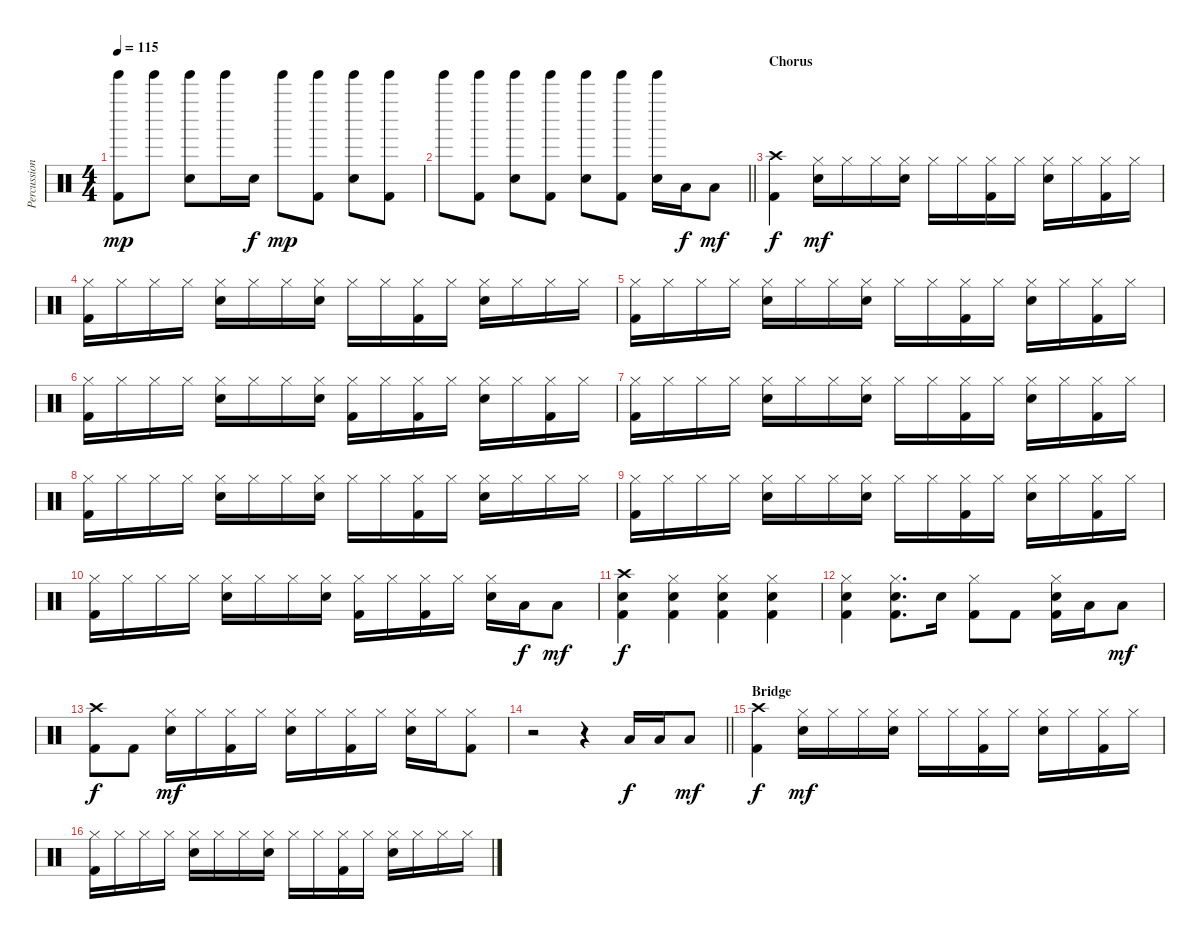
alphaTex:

\track ("Percussion" "Percussion") {instrument percussion}
\staff {score}
\articulation defaults
\ts (4 4)
\tempo 115
\clef neutral
\ks c
("Tinkle Bell (hit)" "Kick (hit) 2").8{dy mp} "Tinkle Bell (hit)".8 ("Tinkle Bell (hit)" "Electric Snare (hit)").8 "Tinkle Bell (hit)".16 "Electric Snare (hit)".16{dy f} "Tinkle Bell (hit)".8{dy mp} ("Tinkle Bell (hit)" "Kick (hit) 2").8 ("Tinkle Bell (hit)" "Electric Snare (hit)").8 ("Tinkle Bell (hit)" "Kick (hit) 2").8 |
\barLineRight lightlight "Tinkle Bell (hit)".8
("Tinkle Bell (hit)" "Kick (hit) 2").8 ("Tinkle Bell (hit)" "Electric Snare (hit)").8 ("Tinkle Bell (hit)" "Kick (hit) 2").8 ("Tinkle Bell (hit)" "Electric Snare (hit)").8 ("Tinkle Bell (hit)" "Kick (hit) 2").8 ("Tinkle Bell (hit)" "Electric Snare (hit)").16 "Low Tom (hit)".16{dy f} "Low Tom (hit)".8{dy mf} |
\section ("" "Chorus")
("Crash high (hit)" "Kick (hit) 2").4{dy f} ("Hi-Hat (closed)" "Electric Snare (hit)").16{dy mf} "Hi-Hat (closed)".16 "Hi-Hat (closed)".16 ("Hi-Hat (closed)" "Electric Snare (hit)").16 "Hi-Hat (closed)".16 "Hi-Hat (closed)".16 ("Hi-Hat (closed)" "Kick (hit) 2").16 "Hi-Hat (closed)".16 ("Hi-Hat (closed)" "Electric Snare (hit)").16 "Hi-Hat (closed)".16 ("Hi-Hat (closed)" "Kick (hit) 2").16 "Hi-Hat (closed)".16 |
("Hi-Hat (closed)" "Kick (hit) 2").16 "Hi-Hat (closed)".16 "Hi-Hat (closed)".16 "Hi-Hat (closed)".16 ("Hi-Hat (closed)" "Electric Snare (hit)").16 "Hi-Hat (closed)".16 "Hi-Hat (closed)".16 ("Hi-Hat (closed)" "Electric Snare (hit)").16 "Hi-Hat (closed)".16 "Hi-Hat (closed)".16 ("Hi-Hat (closed)" "Kick (hit) 2").16 "Hi-Hat (closed)".16 ("Hi-Hat (closed)" "Electric Snare (hit)").16 "Hi-Hat (closed)".16 "Hi-Hat (closed)".16 "Hi-Hat (closed)".16 |
("Hi-Hat (closed)" "Kick (hit) 2").16 "Hi-Hat (closed)".16 "Hi-Hat (closed)".16 "Hi-Hat (closed)".16 ("Hi-Hat (closed)" "Electric Snare (hit)").16 "Hi-Hat (closed)".16 "Hi-Hat (closed)".16 ("Hi-Hat (closed)" "Electric Snare (hit)").16 "Hi-Hat (closed)".16 "Hi-Hat (closed)".16 ("Hi-Hat (closed)" "Kick (hit) 2").16 "Hi-Hat (closed)".16 ("Hi-Hat (closed)" "Electric Snare (hit)").16 "Hi-Hat (closed)".16 ("Hi-Hat (closed)" "Kick (hit) 2").16 "Hi-Hat (closed)".16 |
("Hi-Hat (closed)" "Kick (hit) 2").16 "Hi-Hat (closed)".16 "Hi-Hat (closed)".16 "Hi-Hat (closed)".16 ("Hi-Hat (closed)" "Electric Snare (hit)").16 "Hi-Hat (closed)".16 "Hi-Hat (closed)".16 ("Hi-Hat (closed)" "Electric Snare (hit)").16 ("Hi-Hat (closed)" "Kick (hit) 2").16 "Hi-Hat (closed)".16 ("Hi-Hat (closed)" "Kick (hit) 2").16 "Hi-Hat (closed)".16 ("Hi-Hat (closed)" "Electric Snare (hit)").16 "Hi-Hat (closed)".16 ("Hi-Hat (closed)" "Kick (hit) 2").16 "Hi-Hat (closed)".16 |
("Hi-Hat (closed)" "Kick (hit) 2").16 "Hi-Hat (closed)".16 "Hi-Hat (closed)".16 "Hi-Hat (closed)".16 ("Hi-Hat (closed)" "Electric Snare (hit)").16 "Hi-Hat (closed)".16 "Hi-Hat (closed)".16 ("Hi-Hat (closed)" "Electric Snare (hit)").16 "Hi-Hat (closed)".16 "Hi-Hat (closed)".16 ("Hi-Hat (closed)" "Kick (hit) 2").16 "Hi-Hat (closed)".16 ("Hi-Hat (closed)" "Electric Snare (hit)").16 "Hi-Hat (closed)".16 ("Hi-Hat (closed)" "Kick (hit) 2").16 "Hi-Hat (closed)".16 |
("Hi-Hat (closed)" "Kick (hit) 2").16 "Hi-Hat (closed)".16 "Hi-Hat (closed)".16 "Hi-Hat (closed)".16 ("Hi-Hat (closed)" "Electric Snare (hit)").16 "Hi-Hat (closed)".16 "Hi-Hat (closed)".16 ("Hi-Hat (closed)" "Electric Snare (hit)").16 "Hi-Hat (closed)".16 "Hi-Hat (closed)".16 ("Hi-Hat (closed)" "Kick (hit) 2").16 "Hi-Hat (closed)".16 ("Hi-Hat (closed)" "Electric Snare (hit)").16 "Hi-Hat (closed)".16 "Hi-Hat (closed)".16 "Hi-Hat (closed)".16 |
("Hi-Hat (closed)" "Kick (hit) 2").16 "Hi-Hat (closed)".16 "Hi-Hat (closed)".16 "Hi-Hat (closed)".16 ("Hi-Hat (closed)" "Electric Snare (hit)").16 "Hi-Hat (closed)".16 "Hi-Hat (closed)".16 ("Hi-Hat (closed)" "Electric Snare (hit)").16 "Hi-Hat (closed)".16 "Hi-Hat (closed)".16 ("Hi-Hat (closed)" "Kick (hit) 2").16 "Hi-Hat (closed)".16 ("Hi-Hat (closed)" "Electric Snare (hit)").16 "Hi-Hat (closed)".16 ("Hi-Hat (closed)" "Kick (hit) 2").16 "Hi-Hat (closed)".16 |
("Hi-Hat (closed)" "Kick (hit) 2").16 "Hi-Hat (closed)".16 "Hi-Hat (closed)".16 "Hi-Hat (closed)".16 ("Hi-Hat (closed)" "Electric Snare (hit)").16 "Hi-Hat (closed)".16 "Hi-Hat (closed)".16 ("Hi-Hat (closed)" "Electric Snare (hit)").16 ("Hi-Hat (closed)" "Kick (hit) 2").16 "Hi-Hat (closed)".16 ("Hi-Hat (closed)" "Kick (hit) 2").16 "Hi-Hat (closed)".16 ("Hi-Hat (closed)" "Electric Snare (hit)").16 "Low Tom (hit)".16{dy f} "Low Tom (hit)".8{dy mf} |
("Crash high (hit)" "Electric Snare (hit)" "Kick (hit) 2").4{dy f} ("Hi-Hat (closed)" "Electric Snare (hit)" "Kick (hit) 2").4 ("Hi-Hat (closed)" "Electric Snare (hit)" "Kick (hit) 2").4 ("Hi-Hat (closed)" "Electric Snare (hit)" "Kick (hit) 2").4 |
("Hi-Hat (closed)" "Electric Snare (hit)" "Kick (hit) 2").4 ("Hi-Hat (closed)" "Electric Snare (hit)" "Kick (hit) 2").8{d} "Electric Snare (hit)".16 ("Hi-Hat (closed)" "Kick (hit) 2").8 "Kick (hit) 2".8 ("Hi-Hat (closed)" "Electric Snare (hit)" "Kick (hit) 2").16 "Low Tom (hit)".16 "Low Tom (hit)".8{dy mf} |
("Crash high (hit)" "Kick (hit) 2").8{dy f} "Kick (hit) 2".8 ("Hi-Hat (closed)" "Electric Snare (hit)").16{dy mf} "Hi-Hat (closed)".16 ("Hi-Hat (closed)" "Kick (hit) 2").16 "Hi-Hat (closed)".16 ("Hi-Hat (closed)" "Electric Snare (hit)").16 "Hi-Hat (closed)".16 ("Hi-Hat (closed)" "Kick (hit) 2").16 "Hi-Hat (closed)".16 ("Hi-Hat (closed)" "Electric Snare (hit)").16 "Hi-Hat (closed)".16 ("Hi-Hat (closed)" "Kick (hit) 2").8 |
\barLineRight lightlight
r.2 r.4 "Low Tom (hit)".16{dy f} "Low Tom (hit)".16 "Low Tom (hit)".8{dy mf} |
\section ("" "Bridge")
("Crash high (hit)" "Kick (hit) 2").4{dy f} ("Hi-Hat (closed)" "Electric Snare (hit)").16{dy mf} "Hi-Hat (closed)".16 "Hi-Hat (closed)".16 ("Hi-Hat (closed)" "Electric Snare (hit)").16 "Hi-Hat (closed)".16 "Hi-Hat (closed)".16 ("Hi-Hat (closed)" "Kick (hit) 2").16 "Hi-Hat (closed)".16 ("Hi-Hat (closed)" "Electric Snare (hit)").16 "Hi-Hat (closed)".16 ("Hi-Hat (closed)" "Kick (hit) 2").16 "Hi-Hat (closed)".16 |
("Hi-Hat (closed)" "Kick (hit) 2").16 "Hi-Hat (closed)".16 "Hi-Hat (closed)".16 "Hi-Hat (closed)".16 ("Hi-Hat (closed)" "Electric Snare (hit)").16 "Hi-Hat (closed)".16 "Hi-Hat (closed)".16 ("Hi-Hat (closed)" "Electric Snare (hit)").16 "Hi-Hat (closed)".16 "Hi-Hat (closed)".16 ("Hi-Hat (closed)" "Kick (hit) 2").16 "Hi-Hat (closed)".16 ("Hi-Hat (closed)" "Electric Snare (hit)").16 "Hi-Hat (closed)".16 "Hi-Hat (closed)".16 "Hi-Hat (closed)".16
